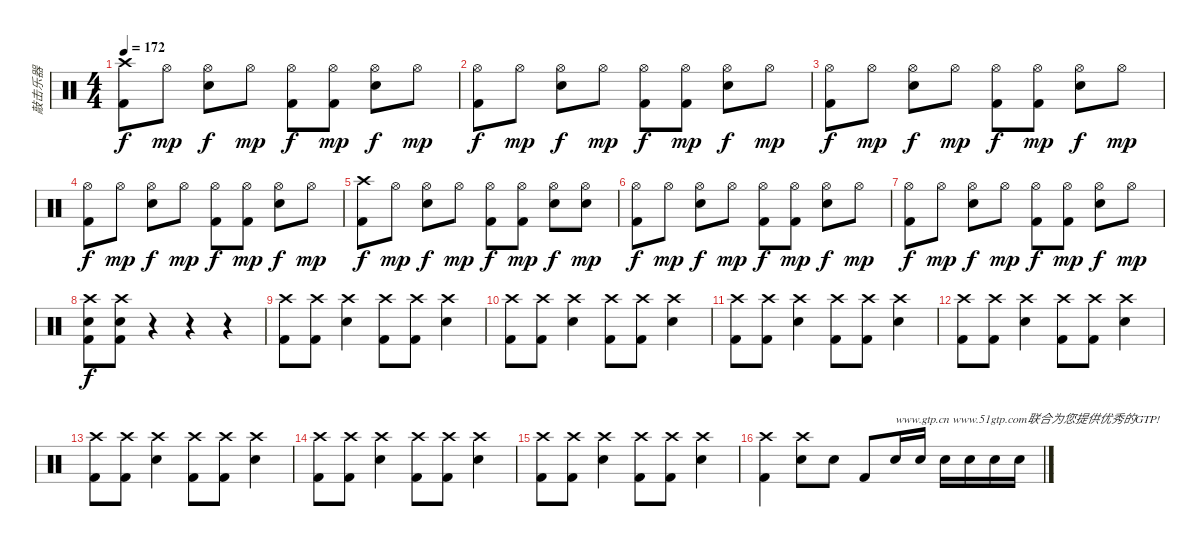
\track ("敲击乐器" "敲击乐器") {instrument percussion}
\staff {score}
\articulation defaults
\ts (4 4)
\tempo 172
\clef neutral
\ks c
("Crash high (hit)" "Kick (hit) 2").8{dy f} "Hi-Hat (open)".8{dy mp} ("Hi-Hat (open)" "Electric Snare (hit)").8{dy f} "Hi-Hat (open)".8{dy mp} ("Hi-Hat (open)" "Kick (hit) 2").8{dy f} ("Hi-Hat (open)" "Kick (hit) 2").8{dy mp} ("Hi-Hat (open)" "Electric Snare (hit)").8{dy f} "Hi-Hat (open)".8{dy mp} |
("Hi-Hat (open)" "Kick (hit) 2").8{dy f} "Hi-Hat (open)".8{dy mp} ("Hi-Hat (open)" "Electric Snare (hit)").8{dy f} "Hi-Hat (open)".8{dy mp} ("Hi-Hat (open)" "Kick (hit) 2").8{dy f} ("Hi-Hat (open)" "Kick (hit) 2").8{dy mp} ("Hi-Hat (open)" "Electric Snare (hit)").8{dy f} "Hi-Hat (open)".8{dy mp} |
("Hi-Hat (open)" "Kick (hit) 2").8{dy f} "Hi-Hat (open)".8{dy mp} ("Hi-Hat (open)" "Electric Snare (hit)").8{dy f} "Hi-Hat (open)".8{dy mp} ("Hi-Hat (open)" "Kick (hit) 2").8{dy f} ("Hi-Hat (open)" "Kick (hit) 2").8{dy mp} ("Hi-Hat (open)" "Electric Snare (hit)").8{dy f} "Hi-Hat (open)".8{dy mp} |
("Hi-Hat (open)" "Kick (hit) 2").8{dy f} "Hi-Hat (open)".8{dy mp} ("Hi-Hat (open)" "Electric Snare (hit)").8{dy f} "Hi-Hat (open)".8{dy mp} ("Hi-Hat (open)" "Kick (hit) 2").8{dy f} ("Hi-Hat (open)" "Kick (hit) 2").8{dy mp} ("Hi-Hat (open)" "Electric Snare (hit)").8{dy f} "Hi-Hat (open)".8{dy mp} |
("Crash high (hit)" "Kick (hit) 2").8{dy f} "Hi-Hat (open)".8{dy mp} ("Hi-Hat (open)" "Electric Snare (hit)").8{dy f} "Hi-Hat (open)".8{dy mp} ("Hi-Hat (open)" "Kick (hit) 2").8{dy f} ("Hi-Hat (open)" "Kick (hit) 2").8{dy mp} ("Hi-Hat (open)" "Electric Snare (hit)").8{dy f} ("Hi-Hat (open)" "Electric Snare (hit)").8{dy mp} |
("Hi-Hat (open)" "Kick (hit) 2").8{dy f} "Hi-Hat (open)".8{dy mp} ("Hi-Hat (open)" "Electric Snare (hit)").8{dy f} "Hi-Hat (open)".8{dy mp} ("Hi-Hat (open)" "Kick (hit) 2").8{dy f} ("Hi-Hat (open)" "Kick (hit) 2").8{dy mp} ("Hi-Hat (open)" "Electric Snare (hit)").8{dy f} "Hi-Hat (open)".8{dy mp} |
("Hi-Hat (open)" "Kick (hit) 2").8{dy f} "Hi-Hat (open)".8{dy mp} ("Hi-Hat (open)" "Electric Snare (hit)").8{dy f} "Hi-Hat (open)".8{dy mp} ("Hi-Hat (open)" "Kick (hit) 2").8{dy f} ("Hi-Hat (open)" "Kick (hit) 2").8{dy mp} ("Hi-Hat (open)" "Electric Snare (hit)").8{dy f} "Hi-Hat (open)".8{dy mp} |
("Crash high (hit)" "Electric Snare (hit)" "Kick (hit) 2").8{dy f} ("Crash high (hit)" "Electric Snare (hit)" "Kick (hit) 2").8 r.4 r.4 r.4 |
("Crash high (hit)" "Kick (hit) 2").8 ("Crash high (hit)" "Kick (hit) 2").8 ("Crash high (hit)" "Electric Snare (hit)").4 ("Crash high (hit)" "Kick (hit) 2").8 ("Crash high (hit)" "Kick (hit) 2").8 ("Crash high (hit)" "Electric Snare (hit)").4 |
("Crash high (hit)" "Kick (hit) 2").8 ("Crash high (hit)" "Kick (hit) 2").8 ("Crash high (hit)" "Electric Snare (hit)").4 ("Crash high (hit)" "Kick (hit) 2").8 ("Crash high (hit)" "Kick (hit) 2").8 ("Crash high (hit)" "Electric Snare (hit)").4 |
("Crash high (hit)" "Kick (hit) 2").8 ("Crash high (hit)" "Kick (hit) 2").8 ("Crash high (hit)" "Electric Snare (hit)").4 ("Crash high (hit)" "Kick (hit) 2").8 ("Crash high (hit)" "Kick (hit) 2").8 ("Crash high (hit)" "Electric Snare (hit)").4 |
("Crash high (hit)" "Kick (hit) 2").8 ("Crash high (hit)" "Kick (hit) 2").8 ("Crash high (hit)" "Electric Snare (hit)").4 ("Crash high (hit)" "Kick (hit) 2").8 ("Crash high (hit)" "Kick (hit) 2").8 ("Crash high (hit)" "Electric Snare (hit)").4 |
("Crash high (hit)" "Kick (hit) 2").8 ("Crash high (hit)" "Kick (hit) 2").8 ("Crash high (hit)" "Electric Snare (hit)").4 ("Crash high (hit)" "Kick (hit) 2").8 ("Crash high (hit)" "Kick (hit) 2").8 ("Crash high (hit)" "Electric Snare (hit)").4 |
("Crash high (hit)" "Kick (hit) 2").8 ("Crash high (hit)" "Kick (hit) 2").8 ("Crash high (hit)" "Electric Snare (hit)").4 ("Crash high (hit)" "Kick (hit) 2").8 ("Crash high (hit)" "Kick (hit) 2").8 ("Crash high (hit)" "Electric Snare (hit)").4 |
("Crash high (hit)" "Kick (hit) 2").8 ("Crash high (hit)" "Kick (hit) 2").8 ("Crash high (hit)" "Electric Snare (hit)").4 ("Crash high (hit)" "Kick (hit) 2").8 ("Crash high (hit)" "Kick (hit) 2").8 ("Crash high (hit)" "Electric Snare (hit)").4 |
("Crash high (hit)" "Kick (hit) 2").4 ("Crash high (hit)" "Electric Snare (hit)").8 "Electric Snare (hit)".8 "Kick (hit) 2".8 "Electric Snare (hit)".16{txt "www.gtp.cn www.51gtp.com联合为您提供优秀的GTP!"} "Electric Snare (hit)".16 "Electric Snare (hit)".16 "Electric Snare (hit)".16 "Electric Snare (hit)".16 "Electric Snare (hit)".16
